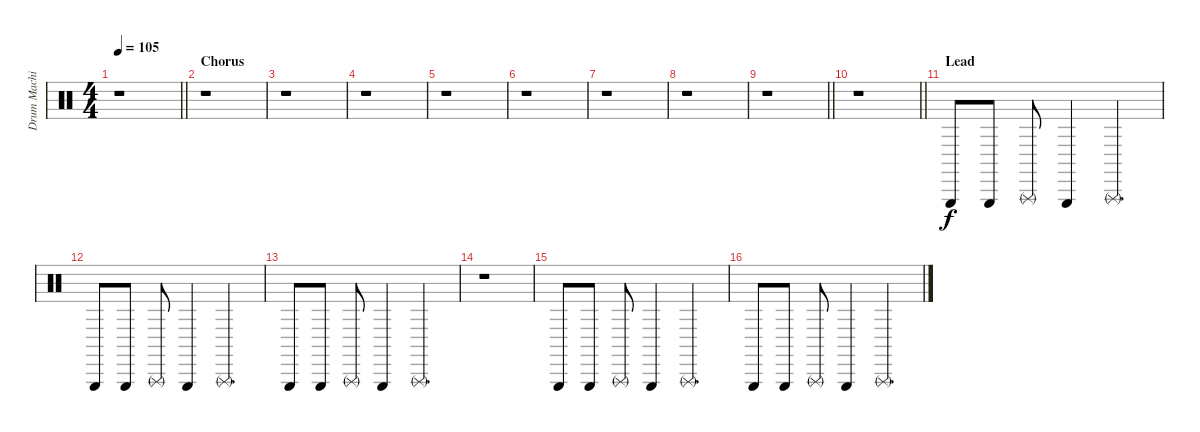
\track ("Drum Machine" "Drum Machi") {instrument percussion}
\staff {score}
\articulation defaults
\ts (4 4)
\tempo 105
\clef neutral
\barLineRight lightlight
\ks c
r.1{dy f} |
\section ("" "Chorus")
r.1 |
r.1 |
r.1 |
r.1 |
r.1 |
r.1 |
r.1 |
\barLineRight lightlight
r.1 |
\barLineRight lightlight
r.1 |
\section ("" "Lead")
"Triangle (hit)".8 "Triangle (hit)".8 "Triangle (rnute)".8 "Triangle (hit)".4 "Triangle (rnute)".4{d} |
"Triangle (hit)".8 "Triangle (hit)".8 "Triangle (rnute)".8 "Triangle (hit)".4 "Triangle (rnute)".4{d} |
"Triangle (hit)".8 "Triangle (hit)".8 "Triangle (rnute)".8 "Triangle (hit)".4 "Triangle (rnute)".4{d} |
r.1 |
"Triangle (hit)".8 "Triangle (hit)".8 "Triangle (rnute)".8 "Triangle (hit)".4 "Triangle (rnute)".4{d} |
"Triangle (hit)".8 "Triangle (hit)".8 "Triangle (rnute)".8 "Triangle (hit)".4 "Triangle (rnute)".4{d}
